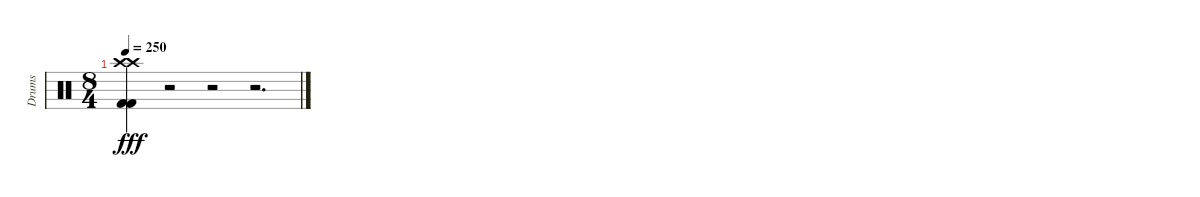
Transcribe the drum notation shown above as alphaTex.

\track ("Drums" "Drums") {instrument percussion}
\staff {score}
\articulation defaults
\ts (8 4)
\tempo 250
\clef neutral
\ks c
("Crash high (hit)" "Crash high (hit)" "Kick (hit) 2" "Kick (hit) 2").4{dy fff} r.2 r.2 r.2{d}
